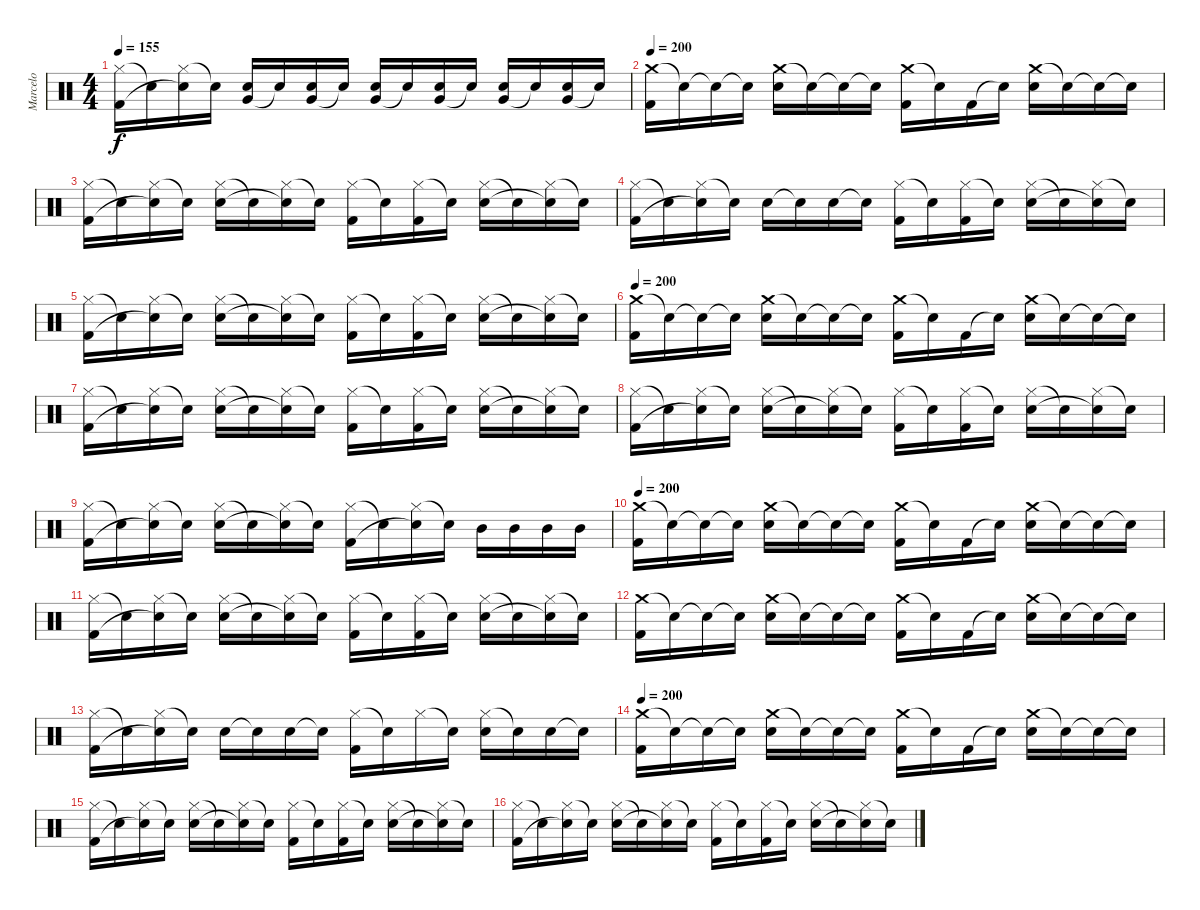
\track ("Marcelo" "Marcelo") {instrument percussion}
\staff {score}
\articulation defaults
\ts (4 4)
\tempo 155
\clef neutral
\ks c
("Hi-Hat (closed)" "Kick (hit) 2").16{dy f} "Snare (hit)"{t}.16 ("Hi-Hat (closed)" "Snare (hit)"{t}).16 "Snare (hit)"{t}.16 ("Very Low Tom (hit)" "Snare (hit) 2").16 "Snare (hit)"{t}.16 ("Very Low Tom (hit)" "Snare (hit) 2").16 "Snare (hit)"{t}.16 ("Very Low Tom (hit)" "Snare (hit) 2").16 "Snare (hit)"{t}.16 ("Very Low Tom (hit)" "Snare (hit) 2").16 "Snare (hit)"{t}.16 ("Very Low Tom (hit)" "Snare (hit) 2").16 "Snare (hit)"{t}.16 ("Very Low Tom (hit)" "Snare (hit) 2").16 "Snare (hit)"{t}.16 |
\tempo 200
("Crash medium (hit)" "Kick (hit) 2").16 "Snare (hit)"{t}.16 "Snare (hit)"{t}.16 "Snare (hit) 2"{t}.16 ("Crash medium (hit)" "Snare (hit) 2").16 "Snare (hit)"{t}.16 "Snare (hit)"{t}.16 "Snare (hit)"{t}.16 ("Crash medium (hit)" "Kick (hit) 2").16 "Snare (hit)"{t}.16 "Kick (hit) 2".16 "Snare (hit) 2"{t}.16 ("Crash medium (hit)" "Snare (hit) 2").16 "Snare (hit)"{t}.16 "Snare (hit)"{t}.16 "Snare (hit)"{t}.16 |
("Hi-Hat (closed)" "Kick (hit) 2").16 "Snare (hit)"{t}.16 ("Hi-Hat (closed)" "Snare (hit)"{t}).16 "Snare (hit)"{t}.16 ("Hi-Hat (closed)" "Snare (hit) 2").16 "Snare (hit)"{t}.16 ("Hi-Hat (closed)" "Snare (hit)"{t}).16 "Snare (hit)"{t}.16 ("Hi-Hat (closed)" "Kick (hit) 2").16 "Snare (hit)"{t}.16 ("Hi-Hat (closed)" "Kick (hit) 2").16 "Snare (hit)"{t}.16 ("Hi-Hat (closed)" "Snare (hit) 2").16 "Snare (hit)"{t}.16 ("Hi-Hat (closed)" "Snare (hit)"{t}).16 "Snare (hit)"{t}.16 |
("Hi-Hat (closed)" "Kick (hit) 2").16 "Snare (hit)"{t}.16 ("Hi-Hat (closed)" "Snare (hit)"{t}).16 "Snare (hit)"{t}.16 "Snare (hit) 2".16 "Snare (hit)"{t}.16 "Snare (hit) 2".16 "Snare (hit)"{t}.16 ("Hi-Hat (closed)" "Kick (hit) 2").16 "Snare (hit)"{t}.16 ("Hi-Hat (closed)" "Kick (hit) 2").16 "Snare (hit)"{t}.16 ("Hi-Hat (closed)" "Snare (hit) 2").16 "Snare (hit)"{t}.16 ("Hi-Hat (closed)" "Snare (hit)"{t}).16 "Snare (hit)"{t}.16 |
("Hi-Hat (closed)" "Kick (hit) 2").16 "Snare (hit)"{t}.16 ("Hi-Hat (closed)" "Snare (hit)"{t}).16 "Snare (hit) 2"{t}.16 ("Hi-Hat (closed)" "Snare (hit) 2").16 "Snare (hit)"{t}.16 ("Hi-Hat (closed)" "Snare (hit)"{t}).16 "Snare (hit)"{t}.16 ("Hi-Hat (closed)" "Kick (hit) 2").16 "Snare (hit)"{t}.16 ("Hi-Hat (closed)" "Kick (hit) 2").16 "Snare (hit) 2"{t}.16 ("Hi-Hat (closed)" "Snare (hit) 2").16 "Snare (hit)"{t}.16 ("Hi-Hat (closed)" "Snare (hit)"{t}).16 "Snare (hit)"{t}.16 |
\tempo 200
("Crash medium (hit)" "Kick (hit) 2").16 "Snare (hit)"{t}.16 "Snare (hit)"{t}.16 "Snare (hit) 2"{t}.16 ("Crash medium (hit)" "Snare (hit) 2").16 "Snare (hit)"{t}.16 "Snare (hit)"{t}.16 "Snare (hit)"{t}.16 ("Crash medium (hit)" "Kick (hit) 2").16 "Snare (hit)"{t}.16 "Kick (hit) 2".16 "Snare (hit) 2"{t}.16 ("Crash medium (hit)" "Snare (hit) 2").16 "Snare (hit)"{t}.16 "Snare (hit)"{t}.16 "Snare (hit)"{t}.16 |
("Hi-Hat (closed)" "Kick (hit) 2").16 "Snare (hit)"{t}.16 ("Hi-Hat (closed)" "Snare (hit)"{t}).16 "Snare (hit) 2"{t}.16 ("Hi-Hat (closed)" "Snare (hit) 2").16 "Snare (hit)"{t}.16 ("Hi-Hat (closed)" "Snare (hit)"{t}).16 "Snare (hit)"{t}.16 ("Hi-Hat (closed)" "Kick (hit) 2").16 "Snare (hit)"{t}.16 ("Hi-Hat (closed)" "Kick (hit) 2").16 "Snare (hit) 2"{t}.16 ("Hi-Hat (closed)" "Snare (hit) 2").16 "Snare (hit)"{t}.16 ("Hi-Hat (closed)" "Snare (hit)"{t}).16 "Snare (hit)"{t}.16 |
("Hi-Hat (closed)" "Kick (hit) 2").16 "Snare (hit)"{t}.16 ("Hi-Hat (closed)" "Snare (hit)"{t}).16 "Snare (hit) 2"{t}.16 ("Hi-Hat (closed)" "Snare (hit) 2").16 "Snare (hit)"{t}.16 ("Hi-Hat (closed)" "Snare (hit)"{t}).16 "Snare (hit)"{t}.16 ("Hi-Hat (closed)" "Kick (hit) 2").16 "Snare (hit)"{t}.16 ("Hi-Hat (closed)" "Kick (hit) 2").16 "Snare (hit) 2"{t}.16 ("Hi-Hat (closed)" "Snare (hit) 2").16 "Snare (hit)"{t}.16 ("Hi-Hat (closed)" "Snare (hit)"{t}).16 "Snare (hit)"{t}.16 |
("Hi-Hat (closed)" "Kick (hit) 2").16 "Snare (hit)"{t}.16 ("Hi-Hat (closed)" "Snare (hit)"{t}).16 "Snare (hit)"{t}.16 ("Hi-Hat (closed)" "Snare (hit) 2").16 "Snare (hit)"{t}.16 ("Hi-Hat (closed)" "Snare (hit)"{t}).16 "Snare (hit)"{t}.16 ("Hi-Hat (closed)" "Kick (hit) 2").16 "Snare (hit)"{t}.16 ("Hi-Hat (closed)" "Snare (hit)"{t}).16 "Snare (hit)"{t}.16 "Mid Tom (hit)".16 "Mid Tom (hit)".16 "Mid Tom (hit)".16 "Mid Tom (hit)".16 |
\tempo 200
("Crash medium (hit)" "Kick (hit) 2").16 "Snare (hit)"{t}.16 "Snare (hit)"{t}.16 "Snare (hit) 2"{t}.16 ("Crash medium (hit)" "Snare (hit) 2").16 "Snare (hit)"{t}.16 "Snare (hit)"{t}.16 "Snare (hit)"{t}.16 ("Crash medium (hit)" "Kick (hit) 2").16 "Snare (hit)"{t}.16 "Kick (hit) 2".16 "Snare (hit) 2"{t}.16 ("Crash medium (hit)" "Snare (hit) 2").16 "Snare (hit)"{t}.16 "Snare (hit)"{t}.16 "Snare (hit)"{t}.16 |
("Hi-Hat (closed)" "Kick (hit) 2").16 "Snare (hit)"{t}.16 ("Hi-Hat (closed)" "Snare (hit)"{t}).16 "Snare (hit) 2"{t}.16 ("Hi-Hat (closed)" "Snare (hit) 2").16 "Snare (hit)"{t}.16 ("Hi-Hat (closed)" "Snare (hit)"{t}).16 "Snare (hit)"{t}.16 ("Hi-Hat (closed)" "Kick (hit) 2").16 "Snare (hit)"{t}.16 ("Hi-Hat (closed)" "Kick (hit) 2").16 "Snare (hit) 2"{t}.16 ("Hi-Hat (closed)" "Snare (hit) 2").16 "Snare (hit)"{t}.16 ("Hi-Hat (closed)" "Snare (hit)"{t}).16 "Snare (hit)"{t}.16 |
("Crash medium (hit)" "Kick (hit) 2").16 "Snare (hit)"{t}.16 "Snare (hit)"{t}.16 "Snare (hit) 2"{t}.16 ("Crash medium (hit)" "Snare (hit) 2").16 "Snare (hit)"{t}.16 "Snare (hit)"{t}.16 "Snare (hit)"{t}.16 ("Crash medium (hit)" "Kick (hit) 2").16 "Snare (hit)"{t}.16 "Kick (hit) 2".16 "Snare (hit) 2"{t}.16 ("Crash medium (hit)" "Snare (hit) 2").16 "Snare (hit)"{t}.16 "Snare (hit)"{t}.16 "Snare (hit)"{t}.16 |
("Hi-Hat (closed)" "Kick (hit) 2").16 "Snare (hit)"{t}.16 ("Hi-Hat (closed)" "Snare (hit)"{t}).16 "Snare (hit)"{t}.16 "Snare (hit) 2".16 "Snare (hit)"{t}.16 "Snare (hit) 2".16 "Snare (hit)"{t}.16 ("Hi-Hat (closed)" "Kick (hit) 2").16 "Snare (hit)"{t}.16 "Hi-Hat (closed)".16 "Snare (hit)"{t}.16 ("Hi-Hat (closed)" "Snare (hit) 2").16 "Snare (hit)"{t}.16 "Snare (hit) 2".16 "Snare (hit)"{t}.16 |
\tempo 200
("Crash medium (hit)" "Kick (hit) 2").16 "Snare (hit)"{t}.16 "Snare (hit)"{t}.16 "Snare (hit) 2"{t}.16 ("Crash medium (hit)" "Snare (hit) 2").16 "Snare (hit)"{t}.16 "Snare (hit)"{t}.16 "Snare (hit)"{t}.16 ("Crash medium (hit)" "Kick (hit) 2").16 "Snare (hit)"{t}.16 "Kick (hit) 2".16 "Snare (hit) 2"{t}.16 ("Crash medium (hit)" "Snare (hit) 2").16 "Snare (hit)"{t}.16 "Snare (hit)"{t}.16 "Snare (hit)"{t}.16 |
("Hi-Hat (closed)" "Kick (hit) 2").16 "Snare (hit)"{t}.16 ("Hi-Hat (closed)" "Snare (hit)"{t}).16 "Snare (hit) 2"{t}.16 ("Hi-Hat (closed)" "Snare (hit) 2").16 "Snare (hit)"{t}.16 ("Hi-Hat (closed)" "Snare (hit)"{t}).16 "Snare (hit)"{t}.16 ("Hi-Hat (closed)" "Kick (hit) 2").16 "Snare (hit)"{t}.16 ("Hi-Hat (closed)" "Kick (hit) 2").16 "Snare (hit) 2"{t}.16 ("Hi-Hat (closed)" "Snare (hit) 2").16 "Snare (hit)"{t}.16 ("Hi-Hat (closed)" "Snare (hit)"{t}).16 "Snare (hit)"{t}.16 |
("Hi-Hat (closed)" "Kick (hit) 2").16 "Snare (hit)"{t}.16 ("Hi-Hat (closed)" "Snare (hit)"{t}).16 "Snare (hit) 2"{t}.16 ("Hi-Hat (closed)" "Snare (hit) 2").16 "Snare (hit)"{t}.16 ("Hi-Hat (closed)" "Snare (hit)"{t}).16 "Snare (hit)"{t}.16 ("Hi-Hat (closed)" "Kick (hit) 2").16 "Snare (hit)"{t}.16 ("Hi-Hat (closed)" "Kick (hit) 2").16 "Snare (hit) 2"{t}.16 ("Hi-Hat (closed)" "Snare (hit) 2").16 "Snare (hit)"{t}.16 ("Hi-Hat (closed)" "Snare (hit)"{t}).16 "Snare (hit)"{t}.16
